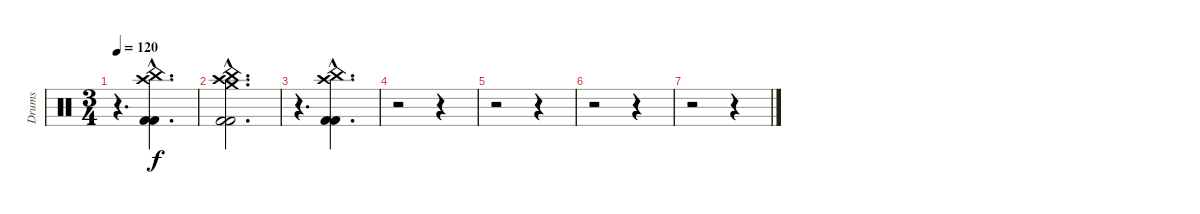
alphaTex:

\track ("Drums" "Drums") {instrument percussion}
\staff {score}
\articulation defaults
\ts (3 4)
\tempo 120
\clef neutral
\ks c
r.4{d dy f} ("Kick (hit) 2"{hac} "China (hit)"{hac} "Crash high (hit)"{hac} "Kick (hit) 2"{hac}).4{d} |
("Kick (hit) 2"{hac} "China (hit)"{hac} "Crash high (hit)"{hac} "Crash medium (hit)"{hac} "Kick (hit) 2"{hac}).2{d} |
r.4{d} ("Kick (hit) 2"{hac} "China (hit)"{hac} "Crash high (hit)"{hac} "Kick (hit) 2"{hac}).4{d} |
r.2 r.4 |
r.2 r.4 |
r.2 r.4 |
r.2 r.4
